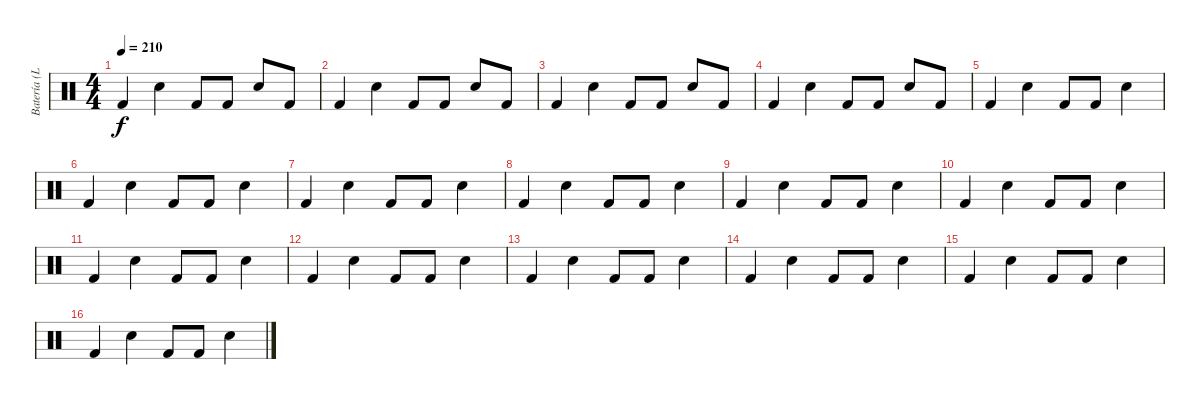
\track ("Batería (Leo)" "Batería (L") {instrument percussion}
\staff {score}
\articulation defaults
\ts (4 4)
\tempo 210
\clef neutral
\ks c "Kick (hit) 2".4{dy f} "Snare (hit) 2".4 "Kick (hit) 2".8 "Kick (hit) 2".8 "Snare (hit) 2".8 "Kick (hit) 2".8
|
"Kick (hit) 2".4 "Snare (hit) 2".4 "Kick (hit) 2".8 "Kick (hit) 2".8 "Snare (hit) 2".8 "Kick (hit) 2".8 |
"Kick (hit) 2".4 "Snare (hit) 2".4 "Kick (hit) 2".8 "Kick (hit) 2".8 "Snare (hit) 2".8 "Kick (hit) 2".8 |
"Kick (hit) 2".4 "Snare (hit) 2".4 "Kick (hit) 2".8 "Kick (hit) 2".8 "Snare (hit) 2".8 "Kick (hit) 2".8 |
"Kick (hit) 2".4 "Snare (hit) 2".4 "Kick (hit) 2".8 "Kick (hit) 2".8 "Snare (hit) 2".4 |
"Kick (hit) 2".4 "Snare (hit) 2".4 "Kick (hit) 2".8 "Kick (hit) 2".8 "Snare (hit) 2".4 |
"Kick (hit) 2".4 "Snare (hit) 2".4 "Kick (hit) 2".8 "Kick (hit) 2".8 "Snare (hit) 2".4 |
"Kick (hit) 2".4 "Snare (hit) 2".4 "Kick (hit) 2".8 "Kick (hit) 2".8 "Snare (hit) 2".4 |
"Kick (hit) 2".4 "Snare (hit) 2".4 "Kick (hit) 2".8 "Kick (hit) 2".8 "Snare (hit) 2".4 |
"Kick (hit) 2".4 "Snare (hit) 2".4 "Kick (hit) 2".8 "Kick (hit) 2".8 "Snare (hit) 2".4 |
"Kick (hit) 2".4 "Snare (hit) 2".4 "Kick (hit) 2".8 "Kick (hit) 2".8 "Snare (hit) 2".4 |
"Kick (hit) 2".4 "Snare (hit) 2".4 "Kick (hit) 2".8 "Kick (hit) 2".8 "Snare (hit) 2".4 |
"Kick (hit) 2".4 "Snare (hit) 2".4 "Kick (hit) 2".8 "Kick (hit) 2".8 "Snare (hit) 2".4 |
"Kick (hit) 2".4 "Snare (hit) 2".4 "Kick (hit) 2".8 "Kick (hit) 2".8 "Snare (hit) 2".4 |
"Kick (hit) 2".4 "Snare (hit) 2".4 "Kick (hit) 2".8 "Kick (hit) 2".8 "Snare (hit) 2".4 |
"Kick (hit) 2".4 "Snare (hit) 2".4 "Kick (hit) 2".8 "Kick (hit) 2".8 "Snare (hit) 2".4
